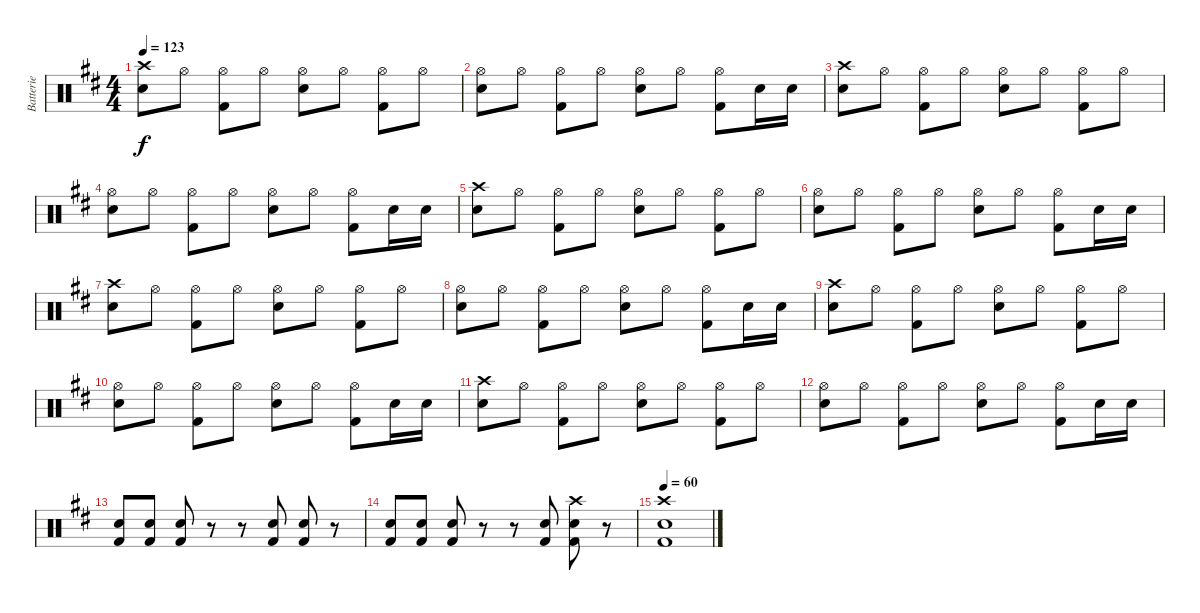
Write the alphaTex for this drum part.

\track ("Batterie" "Batterie") {instrument percussion}
\staff {score}
\articulation defaults
\ts (4 4)
\tempo 123
\clef neutral
\ks d
("Crash high (hit)" "Snare (hit) 2").8{dy f} "Hi-Hat (open)".8 ("Hi-Hat (open)" "Kick (hit) 2").8 "Hi-Hat (open)".8 ("Hi-Hat (open)" "Snare (hit) 2").8 "Hi-Hat (open)".8 ("Hi-Hat (open)" "Kick (hit) 2").8 "Hi-Hat (open)".8 |
("Hi-Hat (open)" "Snare (hit) 2").8 "Hi-Hat (open)".8 ("Hi-Hat (open)" "Kick (hit) 2").8 "Hi-Hat (open)".8 ("Hi-Hat (open)" "Snare (hit) 2").8 "Hi-Hat (open)".8 ("Hi-Hat (open)" "Kick (hit) 2").8 "Snare (hit) 2".16 "Snare (hit) 2".16 |
("Crash high (hit)" "Snare (hit) 2").8 "Hi-Hat (open)".8 ("Hi-Hat (open)" "Kick (hit) 2").8 "Hi-Hat (open)".8 ("Hi-Hat (open)" "Snare (hit) 2").8 "Hi-Hat (open)".8 ("Hi-Hat (open)" "Kick (hit) 2").8 "Hi-Hat (open)".8 |
("Hi-Hat (open)" "Snare (hit) 2").8 "Hi-Hat (open)".8 ("Hi-Hat (open)" "Kick (hit) 2").8 "Hi-Hat (open)".8 ("Hi-Hat (open)" "Snare (hit) 2").8 "Hi-Hat (open)".8 ("Hi-Hat (open)" "Kick (hit) 2").8 "Snare (hit) 2".16 "Snare (hit) 2".16 |
("Crash high (hit)" "Snare (hit) 2").8 "Hi-Hat (open)".8 ("Hi-Hat (open)" "Kick (hit) 2").8 "Hi-Hat (open)".8 ("Hi-Hat (open)" "Snare (hit) 2").8 "Hi-Hat (open)".8 ("Hi-Hat (open)" "Kick (hit) 2").8 "Hi-Hat (open)".8 |
("Hi-Hat (open)" "Snare (hit) 2").8 "Hi-Hat (open)".8 ("Hi-Hat (open)" "Kick (hit) 2").8 "Hi-Hat (open)".8 ("Hi-Hat (open)" "Snare (hit) 2").8 "Hi-Hat (open)".8 ("Hi-Hat (open)" "Kick (hit) 2").8 "Snare (hit) 2".16 "Snare (hit) 2".16 |
("Crash high (hit)" "Snare (hit) 2").8 "Hi-Hat (open)".8 ("Hi-Hat (open)" "Kick (hit) 2").8 "Hi-Hat (open)".8 ("Hi-Hat (open)" "Snare (hit) 2").8 "Hi-Hat (open)".8 ("Hi-Hat (open)" "Kick (hit) 2").8 "Hi-Hat (open)".8 |
("Hi-Hat (open)" "Snare (hit) 2").8 "Hi-Hat (open)".8 ("Hi-Hat (open)" "Kick (hit) 2").8 "Hi-Hat (open)".8 ("Hi-Hat (open)" "Snare (hit) 2").8 "Hi-Hat (open)".8 ("Hi-Hat (open)" "Kick (hit) 2").8 "Snare (hit) 2".16 "Snare (hit) 2".16 |
("Crash high (hit)" "Snare (hit) 2").8 "Hi-Hat (open)".8 ("Hi-Hat (open)" "Kick (hit) 2").8 "Hi-Hat (open)".8 ("Hi-Hat (open)" "Snare (hit) 2").8 "Hi-Hat (open)".8 ("Hi-Hat (open)" "Kick (hit) 2").8 "Hi-Hat (open)".8 |
("Hi-Hat (open)" "Snare (hit) 2").8 "Hi-Hat (open)".8 ("Hi-Hat (open)" "Kick (hit) 2").8 "Hi-Hat (open)".8 ("Hi-Hat (open)" "Snare (hit) 2").8 "Hi-Hat (open)".8 ("Hi-Hat (open)" "Kick (hit) 2").8 "Snare (hit) 2".16 "Snare (hit) 2".16 |
("Crash high (hit)" "Snare (hit) 2").8 "Hi-Hat (open)".8 ("Hi-Hat (open)" "Kick (hit) 2").8 "Hi-Hat (open)".8 ("Hi-Hat (open)" "Snare (hit) 2").8 "Hi-Hat (open)".8 ("Hi-Hat (open)" "Kick (hit) 2").8 "Hi-Hat (open)".8 |
("Hi-Hat (open)" "Snare (hit) 2").8 "Hi-Hat (open)".8 ("Hi-Hat (open)" "Kick (hit) 2").8 "Hi-Hat (open)".8 ("Hi-Hat (open)" "Snare (hit) 2").8 "Hi-Hat (open)".8 ("Hi-Hat (open)" "Kick (hit) 2").8 "Snare (hit) 2".16 "Snare (hit) 2".16 |
("Snare (hit) 2" "Kick (hit) 2").8 ("Snare (hit) 2" "Kick (hit) 2").8 ("Snare (hit) 2" "Kick (hit) 2").8 r.8 r.8 ("Snare (hit) 2" "Kick (hit) 2").8 ("Snare (hit) 2" "Kick (hit) 2").8 r.8 |
("Snare (hit) 2" "Kick (hit) 2").8 ("Snare (hit) 2" "Kick (hit) 2").8 ("Snare (hit) 2" "Kick (hit) 2").8 r.8 r.8 ("Snare (hit) 2" "Kick (hit) 2").8 ("Crash high (hit)" "Snare (hit) 2" "Kick (hit) 2").8 r.8 |
\tempo 60
("Crash high (hit)" "Snare (hit) 2" "Kick (hit) 2").1
